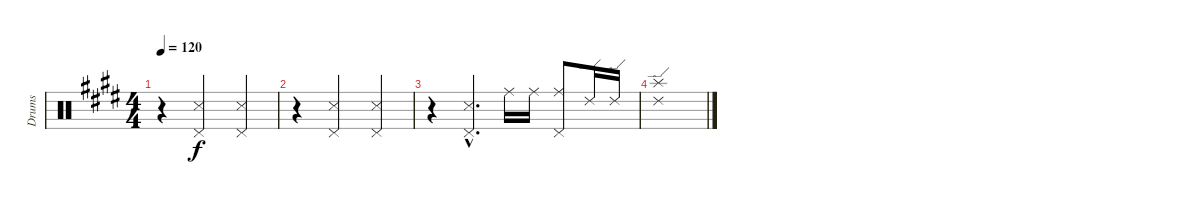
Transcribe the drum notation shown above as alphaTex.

\track ("Drums" "Drums") {instrument percussion}
\staff {score}
\articulation defaults
\ts (4 4)
\tempo 120
\clef neutral
\ks e
r.4{dy f} ("Pedal Hi-Hat (hit)" "Snare (side stick) 3").2 ("Pedal Hi-Hat (hit)" "Snare (side stick) 3").4 |
r.4 ("Pedal Hi-Hat (hit)" "Snare (side stick) 3").2 ("Pedal Hi-Hat (hit)" "Snare (side stick) 3").4 |
r.4 ("Pedal Hi-Hat (hit)"{hac} "Snare (side stick) 3"{hac}).4{d} "Ride (middle)".16 "Ride (middle)".16 ("Pedal Hi-Hat (hit)" "Ride (middle)").8 "Ride (edge) 2".16 "Ride (edge) 2".16 |
("Splash (hit)" "Ride (edge) 2").1
